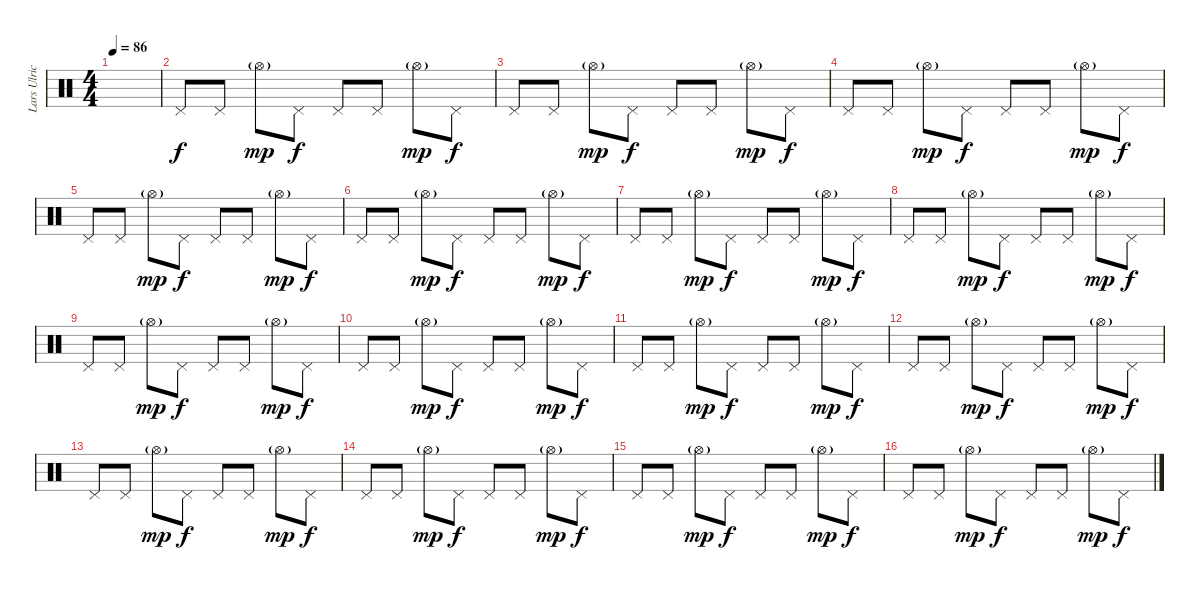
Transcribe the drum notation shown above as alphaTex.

\track ("Lars Ulrich" "Lars Ulric") {instrument percussion}
\staff {score}
\articulation defaults
\ts (4 4)
\tempo 86
\clef neutral
\ks c
|
"Pedal Hi-Hat (hit)".8{volume 16} "Pedal Hi-Hat (hit)".8 "Hi-Hat (open)"{g}.8{dy mp} "Pedal Hi-Hat (hit)".8{dy f} "Pedal Hi-Hat (hit)".8 "Pedal Hi-Hat (hit)".8 "Hi-Hat (open)"{g}.8{dy mp} "Pedal Hi-Hat (hit)".8{dy f} |
"Pedal Hi-Hat (hit)".8 "Pedal Hi-Hat (hit)".8 "Hi-Hat (open)"{g}.8{dy mp} "Pedal Hi-Hat (hit)".8{dy f} "Pedal Hi-Hat (hit)".8 "Pedal Hi-Hat (hit)".8 "Hi-Hat (open)"{g}.8{dy mp} "Pedal Hi-Hat (hit)".8{dy f} |
"Pedal Hi-Hat (hit)".8 "Pedal Hi-Hat (hit)".8 "Hi-Hat (open)"{g}.8{dy mp} "Pedal Hi-Hat (hit)".8{dy f} "Pedal Hi-Hat (hit)".8 "Pedal Hi-Hat (hit)".8 "Hi-Hat (open)"{g}.8{dy mp} "Pedal Hi-Hat (hit)".8{dy f} |
"Pedal Hi-Hat (hit)".8 "Pedal Hi-Hat (hit)".8 "Hi-Hat (open)"{g}.8{dy mp} "Pedal Hi-Hat (hit)".8{dy f} "Pedal Hi-Hat (hit)".8 "Pedal Hi-Hat (hit)".8 "Hi-Hat (open)"{g}.8{dy mp} "Pedal Hi-Hat (hit)".8{dy f} |
"Pedal Hi-Hat (hit)".8 "Pedal Hi-Hat (hit)".8 "Hi-Hat (open)"{g}.8{dy mp} "Pedal Hi-Hat (hit)".8{dy f} "Pedal Hi-Hat (hit)".8 "Pedal Hi-Hat (hit)".8 "Hi-Hat (open)"{g}.8{dy mp} "Pedal Hi-Hat (hit)".8{dy f} |
"Pedal Hi-Hat (hit)".8 "Pedal Hi-Hat (hit)".8 "Hi-Hat (open)"{g}.8{dy mp} "Pedal Hi-Hat (hit)".8{dy f} "Pedal Hi-Hat (hit)".8 "Pedal Hi-Hat (hit)".8 "Hi-Hat (open)"{g}.8{dy mp} "Pedal Hi-Hat (hit)".8{dy f} |
"Pedal Hi-Hat (hit)".8 "Pedal Hi-Hat (hit)".8 "Hi-Hat (open)"{g}.8{dy mp} "Pedal Hi-Hat (hit)".8{dy f} "Pedal Hi-Hat (hit)".8 "Pedal Hi-Hat (hit)".8 "Hi-Hat (open)"{g}.8{dy mp} "Pedal Hi-Hat (hit)".8{dy f} |
"Pedal Hi-Hat (hit)".8 "Pedal Hi-Hat (hit)".8 "Hi-Hat (open)"{g}.8{dy mp} "Pedal Hi-Hat (hit)".8{dy f} "Pedal Hi-Hat (hit)".8 "Pedal Hi-Hat (hit)".8 "Hi-Hat (open)"{g}.8{dy mp} "Pedal Hi-Hat (hit)".8{dy f} |
"Pedal Hi-Hat (hit)".8 "Pedal Hi-Hat (hit)".8 "Hi-Hat (open)"{g}.8{dy mp} "Pedal Hi-Hat (hit)".8{dy f} "Pedal Hi-Hat (hit)".8 "Pedal Hi-Hat (hit)".8 "Hi-Hat (open)"{g}.8{dy mp} "Pedal Hi-Hat (hit)".8{dy f} |
"Pedal Hi-Hat (hit)".8 "Pedal Hi-Hat (hit)".8 "Hi-Hat (open)"{g}.8{dy mp} "Pedal Hi-Hat (hit)".8{dy f} "Pedal Hi-Hat (hit)".8 "Pedal Hi-Hat (hit)".8 "Hi-Hat (open)"{g}.8{dy mp} "Pedal Hi-Hat (hit)".8{dy f} |
"Pedal Hi-Hat (hit)".8 "Pedal Hi-Hat (hit)".8 "Hi-Hat (open)"{g}.8{dy mp} "Pedal Hi-Hat (hit)".8{dy f} "Pedal Hi-Hat (hit)".8 "Pedal Hi-Hat (hit)".8 "Hi-Hat (open)"{g}.8{dy mp} "Pedal Hi-Hat (hit)".8{dy f} |
"Pedal Hi-Hat (hit)".8 "Pedal Hi-Hat (hit)".8 "Hi-Hat (open)"{g}.8{dy mp} "Pedal Hi-Hat (hit)".8{dy f} "Pedal Hi-Hat (hit)".8 "Pedal Hi-Hat (hit)".8 "Hi-Hat (open)"{g}.8{dy mp} "Pedal Hi-Hat (hit)".8{dy f} |
"Pedal Hi-Hat (hit)".8 "Pedal Hi-Hat (hit)".8 "Hi-Hat (open)"{g}.8{dy mp} "Pedal Hi-Hat (hit)".8{dy f} "Pedal Hi-Hat (hit)".8 "Pedal Hi-Hat (hit)".8 "Hi-Hat (open)"{g}.8{dy mp} "Pedal Hi-Hat (hit)".8{dy f} |
"Pedal Hi-Hat (hit)".8 "Pedal Hi-Hat (hit)".8 "Hi-Hat (open)"{g}.8{dy mp} "Pedal Hi-Hat (hit)".8{dy f} "Pedal Hi-Hat (hit)".8 "Pedal Hi-Hat (hit)".8 "Hi-Hat (open)"{g}.8{dy mp} "Pedal Hi-Hat (hit)".8{dy f} |
"Pedal Hi-Hat (hit)".8 "Pedal Hi-Hat (hit)".8 "Hi-Hat (open)"{g}.8{dy mp} "Pedal Hi-Hat (hit)".8{dy f} "Pedal Hi-Hat (hit)".8 "Pedal Hi-Hat (hit)".8 "Hi-Hat (open)"{g}.8{dy mp} "Pedal Hi-Hat (hit)".8{dy f}
